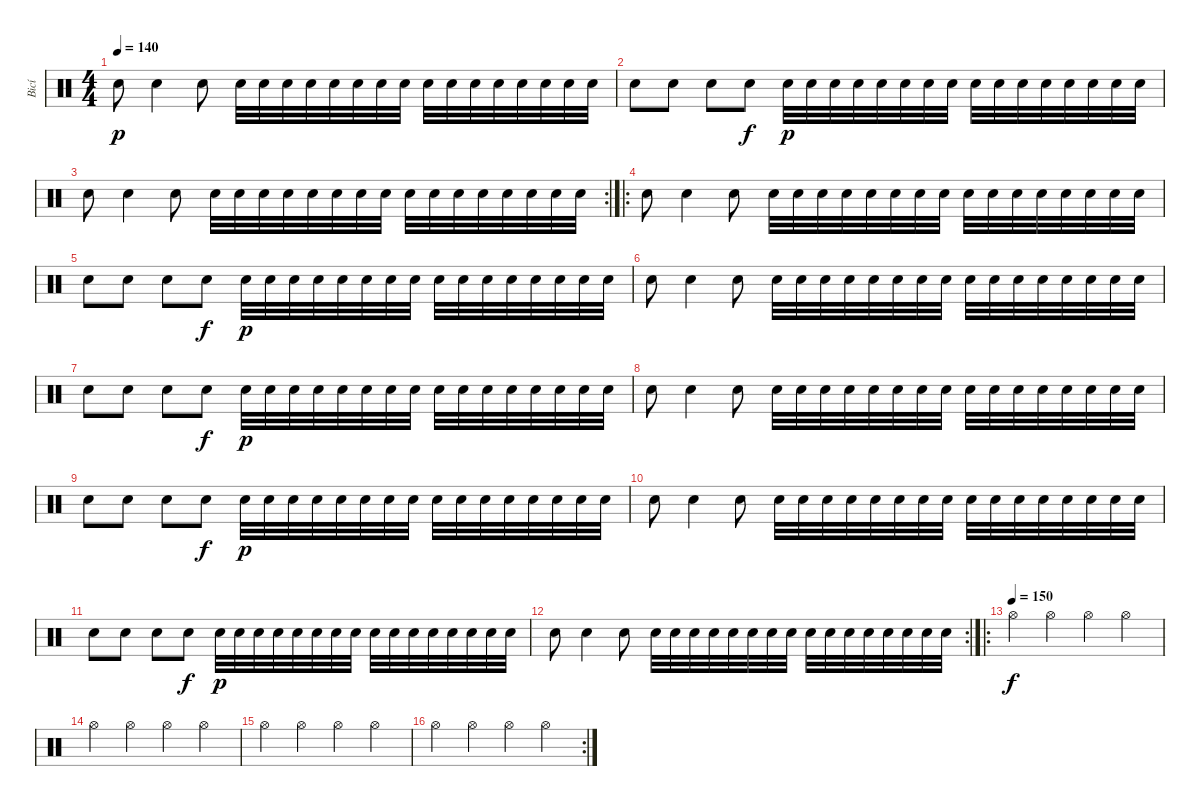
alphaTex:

\track ("Bicí" "Bicí") {instrument percussion}
\staff {score}
\articulation defaults
\ts (4 4)
\tempo 140
\clef neutral
\ks c "Electric Snare (hit)".8{dy p} "Electric Snare (hit)".4 "Electric Snare (hit)".8 "Electric Snare (hit)".32 "Electric Snare (hit)".32 "Electric Snare (hit)".32 "Electric Snare (hit)".32 "Electric Snare (hit)".32 "Electric Snare (hit)".32 "Electric Snare (hit)".32 "Electric Snare (hit)".32 "Electric Snare (hit)".32 "Electric Snare (hit)".32 "Electric Snare (hit)".32 "Electric Snare (hit)".32 "Electric Snare (hit)".32 "Electric Snare (hit)".32 "Electric Snare (hit)".32 "Electric Snare (hit)".32
|
"Electric Snare (hit)".8 "Electric Snare (hit)".8 "Electric Snare (hit)".8 "Electric Snare (hit)".8{dy f} "Electric Snare (hit)".32{dy p} "Electric Snare (hit)".32 "Electric Snare (hit)".32 "Electric Snare (hit)".32 "Electric Snare (hit)".32 "Electric Snare (hit)".32 "Electric Snare (hit)".32 "Electric Snare (hit)".32 "Electric Snare (hit)".32 "Electric Snare (hit)".32 "Electric Snare (hit)".32 "Electric Snare (hit)".32 "Electric Snare (hit)".32 "Electric Snare (hit)".32 "Electric Snare (hit)".32 "Electric Snare (hit)".32 |
\rc 2 "Electric Snare (hit)".8 "Electric Snare (hit)".4 "Electric Snare (hit)".8 "Electric Snare (hit)".32 "Electric Snare (hit)".32 "Electric Snare (hit)".32 "Electric Snare (hit)".32 "Electric Snare (hit)".32 "Electric Snare (hit)".32 "Electric Snare (hit)".32 "Electric Snare (hit)".32 "Electric Snare (hit)".32 "Electric Snare (hit)".32 "Electric Snare (hit)".32 "Electric Snare (hit)".32 "Electric Snare (hit)".32 "Electric Snare (hit)".32 "Electric Snare (hit)".32 "Electric Snare (hit)".32
|
\ro "Electric Snare (hit)".8 "Electric Snare (hit)".4 "Electric Snare (hit)".8 "Electric Snare (hit)".32 "Electric Snare (hit)".32 "Electric Snare (hit)".32 "Electric Snare (hit)".32 "Electric Snare (hit)".32 "Electric Snare (hit)".32 "Electric Snare (hit)".32 "Electric Snare (hit)".32 "Electric Snare (hit)".32 "Electric Snare (hit)".32 "Electric Snare (hit)".32 "Electric Snare (hit)".32 "Electric Snare (hit)".32 "Electric Snare (hit)".32 "Electric Snare (hit)".32 "Electric Snare (hit)".32
|
"Electric Snare (hit)".8 "Electric Snare (hit)".8 "Electric Snare (hit)".8 "Electric Snare (hit)".8{dy f} "Electric Snare (hit)".32{dy p} "Electric Snare (hit)".32 "Electric Snare (hit)".32 "Electric Snare (hit)".32 "Electric Snare (hit)".32 "Electric Snare (hit)".32 "Electric Snare (hit)".32 "Electric Snare (hit)".32 "Electric Snare (hit)".32 "Electric Snare (hit)".32 "Electric Snare (hit)".32 "Electric Snare (hit)".32 "Electric Snare (hit)".32 "Electric Snare (hit)".32 "Electric Snare (hit)".32 "Electric Snare (hit)".32 |
"Electric Snare (hit)".8 "Electric Snare (hit)".4 "Electric Snare (hit)".8 "Electric Snare (hit)".32 "Electric Snare (hit)".32 "Electric Snare (hit)".32 "Electric Snare (hit)".32 "Electric Snare (hit)".32 "Electric Snare (hit)".32 "Electric Snare (hit)".32 "Electric Snare (hit)".32 "Electric Snare (hit)".32 "Electric Snare (hit)".32 "Electric Snare (hit)".32 "Electric Snare (hit)".32 "Electric Snare (hit)".32 "Electric Snare (hit)".32 "Electric Snare (hit)".32 "Electric Snare (hit)".32 |
"Electric Snare (hit)".8 "Electric Snare (hit)".8 "Electric Snare (hit)".8 "Electric Snare (hit)".8{dy f} "Electric Snare (hit)".32{dy p} "Electric Snare (hit)".32 "Electric Snare (hit)".32 "Electric Snare (hit)".32 "Electric Snare (hit)".32 "Electric Snare (hit)".32 "Electric Snare (hit)".32 "Electric Snare (hit)".32 "Electric Snare (hit)".32 "Electric Snare (hit)".32 "Electric Snare (hit)".32 "Electric Snare (hit)".32 "Electric Snare (hit)".32 "Electric Snare (hit)".32 "Electric Snare (hit)".32 "Electric Snare (hit)".32 |
"Electric Snare (hit)".8 "Electric Snare (hit)".4 "Electric Snare (hit)".8 "Electric Snare (hit)".32 "Electric Snare (hit)".32 "Electric Snare (hit)".32 "Electric Snare (hit)".32 "Electric Snare (hit)".32 "Electric Snare (hit)".32 "Electric Snare (hit)".32 "Electric Snare (hit)".32 "Electric Snare (hit)".32 "Electric Snare (hit)".32 "Electric Snare (hit)".32 "Electric Snare (hit)".32 "Electric Snare (hit)".32 "Electric Snare (hit)".32 "Electric Snare (hit)".32 "Electric Snare (hit)".32 |
"Electric Snare (hit)".8 "Electric Snare (hit)".8 "Electric Snare (hit)".8 "Electric Snare (hit)".8{dy f} "Electric Snare (hit)".32{dy p} "Electric Snare (hit)".32 "Electric Snare (hit)".32 "Electric Snare (hit)".32 "Electric Snare (hit)".32 "Electric Snare (hit)".32 "Electric Snare (hit)".32 "Electric Snare (hit)".32 "Electric Snare (hit)".32 "Electric Snare (hit)".32 "Electric Snare (hit)".32 "Electric Snare (hit)".32 "Electric Snare (hit)".32 "Electric Snare (hit)".32 "Electric Snare (hit)".32 "Electric Snare (hit)".32 |
"Electric Snare (hit)".8 "Electric Snare (hit)".4 "Electric Snare (hit)".8 "Electric Snare (hit)".32 "Electric Snare (hit)".32 "Electric Snare (hit)".32 "Electric Snare (hit)".32 "Electric Snare (hit)".32 "Electric Snare (hit)".32 "Electric Snare (hit)".32 "Electric Snare (hit)".32 "Electric Snare (hit)".32 "Electric Snare (hit)".32 "Electric Snare (hit)".32 "Electric Snare (hit)".32 "Electric Snare (hit)".32 "Electric Snare (hit)".32 "Electric Snare (hit)".32 "Electric Snare (hit)".32 |
"Electric Snare (hit)".8 "Electric Snare (hit)".8 "Electric Snare (hit)".8 "Electric Snare (hit)".8{dy f} "Electric Snare (hit)".32{dy p} "Electric Snare (hit)".32 "Electric Snare (hit)".32 "Electric Snare (hit)".32 "Electric Snare (hit)".32 "Electric Snare (hit)".32 "Electric Snare (hit)".32 "Electric Snare (hit)".32 "Electric Snare (hit)".32 "Electric Snare (hit)".32 "Electric Snare (hit)".32 "Electric Snare (hit)".32 "Electric Snare (hit)".32 "Electric Snare (hit)".32 "Electric Snare (hit)".32 "Electric Snare (hit)".32 |
\rc 2 "Electric Snare (hit)".8 "Electric Snare (hit)".4 "Electric Snare (hit)".8 "Electric Snare (hit)".32 "Electric Snare (hit)".32 "Electric Snare (hit)".32 "Electric Snare (hit)".32 "Electric Snare (hit)".32 "Electric Snare (hit)".32 "Electric Snare (hit)".32 "Electric Snare (hit)".32 "Electric Snare (hit)".32 "Electric Snare (hit)".32 "Electric Snare (hit)".32 "Electric Snare (hit)".32 "Electric Snare (hit)".32 "Electric Snare (hit)".32 "Electric Snare (hit)".32 "Electric Snare (hit)".32
|
\ro
\tempo (150)
"Hi-Hat (open)".4{dy f} "Hi-Hat (open)".4 "Hi-Hat (open)".4 "Hi-Hat (open)".4 |
"Hi-Hat (open)".4 "Hi-Hat (open)".4 "Hi-Hat (open)".4 "Hi-Hat (open)".4 |
"Hi-Hat (open)".4 "Hi-Hat (open)".4 "Hi-Hat (open)".4 "Hi-Hat (open)".4 |
\rc 2 "Hi-Hat (open)".4 "Hi-Hat (open)".4 "Hi-Hat (open)".4 "Hi-Hat (open)".4
